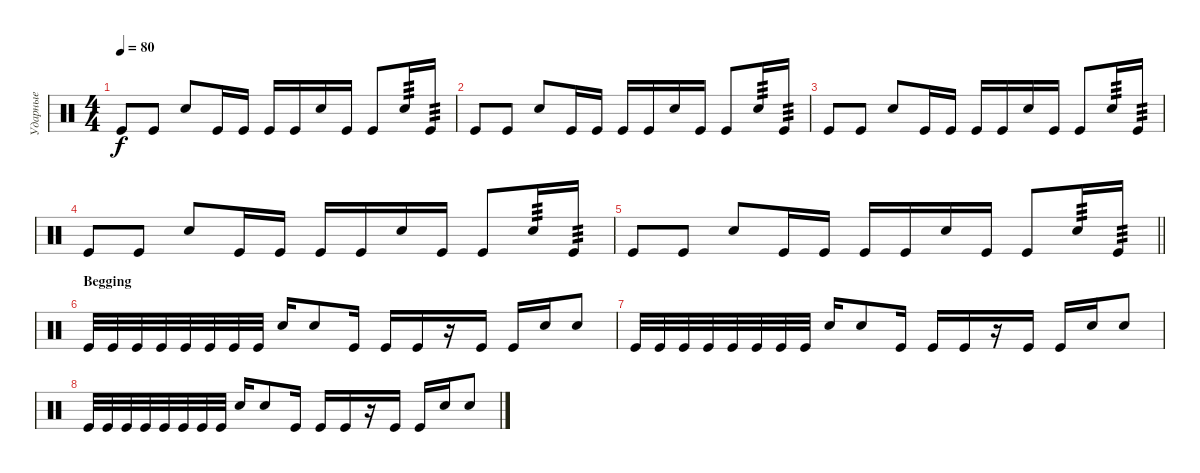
\track ("Ударные" "Ударные") {instrument percussion}
\staff {score}
\articulation defaults
\ts (4 4)
\tempo 80
\clef neutral
\ks c "Kick (hit)".8{dy f} "Kick (hit)".8 "Electric Snare (hit)".8 "Kick (hit)".16 "Kick (hit)".16 "Kick (hit)".16 "Kick (hit)".16 "Electric Snare (hit)".16 "Kick (hit)".16 "Kick (hit)".8 "Electric Snare (hit)".16{tp 3} "Kick (hit)".16{tp 3}
|
"Kick (hit)".8 "Kick (hit)".8 "Electric Snare (hit)".8 "Kick (hit)".16 "Kick (hit)".16 "Kick (hit)".16 "Kick (hit)".16 "Electric Snare (hit)".16 "Kick (hit)".16 "Kick (hit)".8 "Electric Snare (hit)".16{tp 3} "Kick (hit)".16{tp 3} |
"Kick (hit)".8 "Kick (hit)".8 "Electric Snare (hit)".8 "Kick (hit)".16 "Kick (hit)".16 "Kick (hit)".16 "Kick (hit)".16 "Electric Snare (hit)".16 "Kick (hit)".16 "Kick (hit)".8 "Electric Snare (hit)".16{tp 3} "Kick (hit)".16{tp 3} |
"Kick (hit)".8 "Kick (hit)".8 "Electric Snare (hit)".8 "Kick (hit)".16 "Kick (hit)".16 "Kick (hit)".16 "Kick (hit)".16 "Electric Snare (hit)".16 "Kick (hit)".16 "Kick (hit)".8 "Electric Snare (hit)".16{tp 3} "Kick (hit)".16{tp 3} |
\barLineRight lightlight "Kick (hit)".8 "Kick (hit)".8 "Electric Snare (hit)".8 "Kick (hit)".16 "Kick (hit)".16 "Kick (hit)".16 "Kick (hit)".16 "Electric Snare (hit)".16 "Kick (hit)".16 "Kick (hit)".8 "Electric Snare (hit)".16{tp 3} "Kick (hit)".16{tp 3}
|
\section ("" "Begging")
"Kick (hit)".32 "Kick (hit)".32 "Kick (hit)".32 "Kick (hit)".32 "Kick (hit)".32 "Kick (hit)".32 "Kick (hit)".32 "Kick (hit)".32 "Snare (hit) 2".16 "Electric Snare (hit)".8 "Kick (hit)".16 "Kick (hit)".16 "Kick (hit)".16 r.16 "Kick (hit)".16 "Kick (hit)".16 "Snare (hit) 2".16 "Electric Snare (hit)".8 |
"Kick (hit)".32 "Kick (hit)".32 "Kick (hit)".32 "Kick (hit)".32 "Kick (hit)".32 "Kick (hit)".32 "Kick (hit)".32 "Kick (hit)".32 "Snare (hit) 2".16 "Electric Snare (hit)".8 "Kick (hit)".16 "Kick (hit)".16 "Kick (hit)".16 r.16 "Kick (hit)".16 "Kick (hit)".16 "Snare (hit) 2".16 "Electric Snare (hit)".8 |
"Kick (hit)".32 "Kick (hit)".32 "Kick (hit)".32 "Kick (hit)".32 "Kick (hit)".32 "Kick (hit)".32 "Kick (hit)".32 "Kick (hit)".32 "Snare (hit) 2".16 "Electric Snare (hit)".8 "Kick (hit)".16 "Kick (hit)".16 "Kick (hit)".16 r.16 "Kick (hit)".16 "Kick (hit)".16 "Snare (hit) 2".16 "Electric Snare (hit)".8
